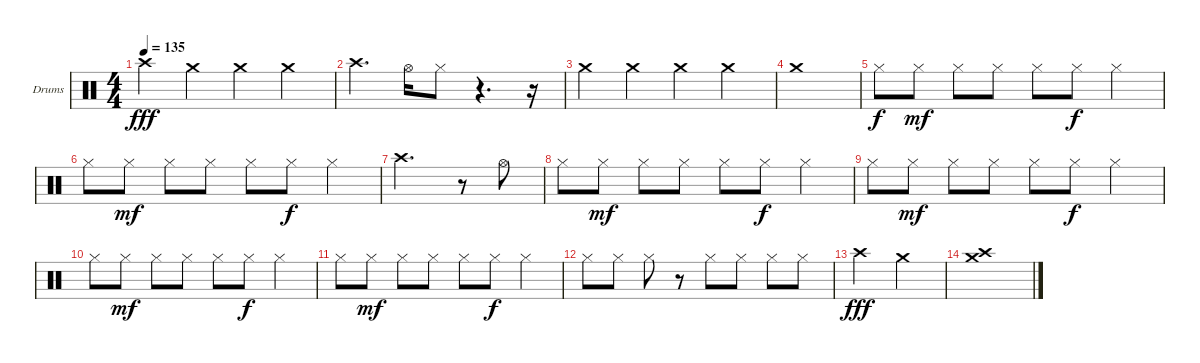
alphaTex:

\defaultSystemsLayout 4
\bracketExtendMode groupsimilarinstruments
\firstSystemTrackNameOrientation horizontal
\otherSystemsTrackNameOrientation horizontal
\track ("Helders" "Drums") {instrument percussion}
\staff {score}
\articulation defaults
\ts (4 4)
\tempo 135
\clef neutral
\ks c "Crash high (hit)".4{dy fff} "Crash medium (hit)".4 "Crash medium (hit)".4 "Crash medium (hit)".4
|
"Crash high (hit)".4{d} "Hi-Hat (open)".16 "Hi-Hat (closed)".8 r.4{d} r.16 |
"Crash medium (hit)".4 "Crash medium (hit)".4 "Crash medium (hit)".4 "Crash medium (hit)".4 |
"Crash medium (hit)".1 |
"Hi-Hat (closed)".8{dy f} "Hi-Hat (closed)".8{dy mf} "Hi-Hat (closed)".8 "Hi-Hat (closed)".8 "Hi-Hat (closed)".8 "Hi-Hat (closed)".8{dy f} "Hi-Hat (closed)".4 |
"Hi-Hat (closed)".8 "Hi-Hat (closed)".8{dy mf} "Hi-Hat (closed)".8 "Hi-Hat (closed)".8 "Hi-Hat (closed)".8 "Hi-Hat (closed)".8{dy f} "Hi-Hat (closed)".4 |
"Crash high (hit)".2{d} r.8 "Hi-Hat (open)".8 |
"Hi-Hat (closed)".8 "Hi-Hat (closed)".8{dy mf} "Hi-Hat (closed)".8 "Hi-Hat (closed)".8 "Hi-Hat (closed)".8 "Hi-Hat (closed)".8{dy f} "Hi-Hat (closed)".4 |
"Hi-Hat (closed)".8 "Hi-Hat (closed)".8{dy mf} "Hi-Hat (closed)".8 "Hi-Hat (closed)".8 "Hi-Hat (closed)".8 "Hi-Hat (closed)".8{dy f} "Hi-Hat (closed)".4 |
"Hi-Hat (closed)".8 "Hi-Hat (closed)".8{dy mf} "Hi-Hat (closed)".8 "Hi-Hat (closed)".8 "Hi-Hat (closed)".8 "Hi-Hat (closed)".8{dy f} "Hi-Hat (closed)".4 |
"Hi-Hat (closed)".8 "Hi-Hat (closed)".8{dy mf} "Hi-Hat (closed)".8 "Hi-Hat (closed)".8 "Hi-Hat (closed)".8 "Hi-Hat (closed)".8{dy f} "Hi-Hat (closed)".4 |
"Hi-Hat (closed)".8 "Hi-Hat (closed)".8 "Hi-Hat (closed)".8 r.8 "Hi-Hat (closed)".8 "Hi-Hat (closed)".8 "Hi-Hat (closed)".8 "Hi-Hat (closed)".8 |
"Crash high (hit)".2{dy fff} "Crash medium (hit)".2 |
("Crash high (hit)" "Crash medium (hit)").1
